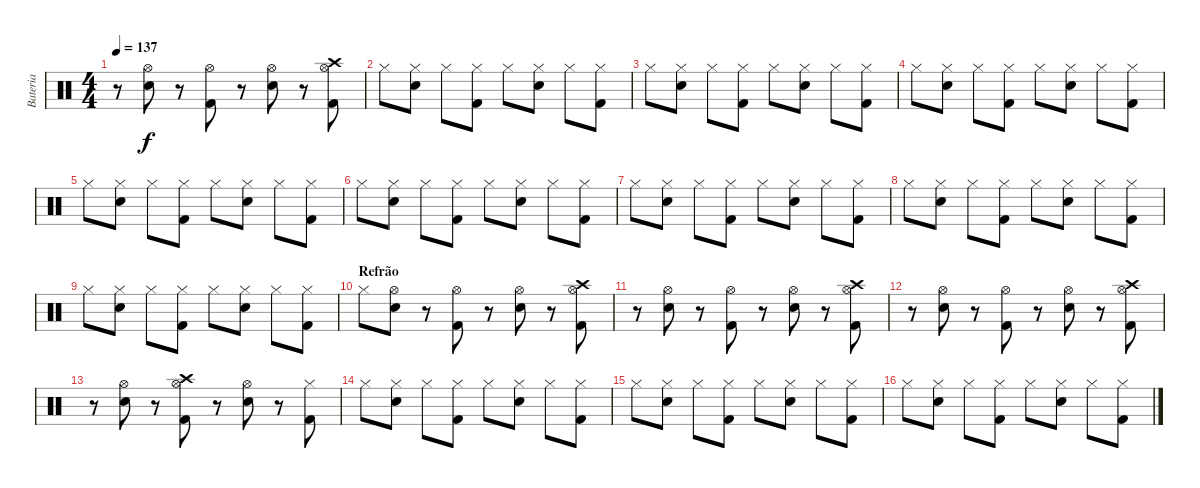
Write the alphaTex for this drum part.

\track ("Bateria" "Bateria") {instrument percussion}
\staff {score}
\articulation defaults
\ts (4 4)
\tempo 137
\clef neutral
\ks c
r.8{dy f} ("Snare (hit) 2" "Hi-Hat (open)").8 r.8 ("Kick (hit) 2" "Hi-Hat (open)").8 r.8 ("Snare (hit) 2" "Hi-Hat (open)").8 r.8 ("Kick (hit) 2" "Hi-Hat (open)" "Crash high (hit)").8 |
"Hi-Hat (closed)".8 ("Snare (hit) 2" "Hi-Hat (closed)").8 "Hi-Hat (closed)".8 ("Kick (hit) 2" "Hi-Hat (closed)").8 "Hi-Hat (closed)".8 ("Snare (hit) 2" "Hi-Hat (closed)").8 "Hi-Hat (closed)".8 ("Kick (hit) 2" "Hi-Hat (closed)").8 |
"Hi-Hat (closed)".8 ("Snare (hit) 2" "Hi-Hat (closed)").8 "Hi-Hat (closed)".8 ("Kick (hit) 2" "Hi-Hat (closed)").8 "Hi-Hat (closed)".8 ("Snare (hit) 2" "Hi-Hat (closed)").8 "Hi-Hat (closed)".8 ("Kick (hit) 2" "Hi-Hat (closed)").8 |
"Hi-Hat (closed)".8 ("Snare (hit) 2" "Hi-Hat (closed)").8 "Hi-Hat (closed)".8 ("Kick (hit) 2" "Hi-Hat (closed)").8 "Hi-Hat (closed)".8 ("Snare (hit) 2" "Hi-Hat (closed)").8 "Hi-Hat (closed)".8 ("Kick (hit) 2" "Hi-Hat (closed)").8 |
"Hi-Hat (closed)".8 ("Snare (hit) 2" "Hi-Hat (closed)").8 "Hi-Hat (closed)".8 ("Kick (hit) 2" "Hi-Hat (closed)").8 "Hi-Hat (closed)".8 ("Snare (hit) 2" "Hi-Hat (closed)").8 "Hi-Hat (closed)".8 ("Kick (hit) 2" "Hi-Hat (closed)").8 |
"Hi-Hat (closed)".8 ("Snare (hit) 2" "Hi-Hat (closed)").8 "Hi-Hat (closed)".8 ("Kick (hit) 2" "Hi-Hat (closed)").8 "Hi-Hat (closed)".8 ("Snare (hit) 2" "Hi-Hat (closed)").8 "Hi-Hat (closed)".8 ("Kick (hit) 2" "Hi-Hat (closed)").8 |
"Hi-Hat (closed)".8 ("Snare (hit) 2" "Hi-Hat (closed)").8 "Hi-Hat (closed)".8 ("Kick (hit) 2" "Hi-Hat (closed)").8 "Hi-Hat (closed)".8 ("Snare (hit) 2" "Hi-Hat (closed)").8 "Hi-Hat (closed)".8 ("Kick (hit) 2" "Hi-Hat (closed)").8 |
"Hi-Hat (closed)".8 ("Snare (hit) 2" "Hi-Hat (closed)").8 "Hi-Hat (closed)".8 ("Kick (hit) 2" "Hi-Hat (closed)").8 "Hi-Hat (closed)".8 ("Snare (hit) 2" "Hi-Hat (closed)").8 "Hi-Hat (closed)".8 ("Kick (hit) 2" "Hi-Hat (closed)").8 |
"Hi-Hat (closed)".8 ("Snare (hit) 2" "Hi-Hat (closed)").8 "Hi-Hat (closed)".8 ("Kick (hit) 2" "Hi-Hat (closed)").8 "Hi-Hat (closed)".8 ("Snare (hit) 2" "Hi-Hat (closed)").8 "Hi-Hat (closed)".8 ("Kick (hit) 2" "Hi-Hat (closed)").8 |
\section ("" "Refrão")
"Hi-Hat (closed)".8 ("Snare (hit) 2" "Hi-Hat (open)").8 r.8 ("Kick (hit) 2" "Hi-Hat (open)").8 r.8 ("Snare (hit) 2" "Hi-Hat (open)").8 r.8 ("Kick (hit) 2" "Hi-Hat (open)" "Crash high (hit)").8 |
r.8 ("Snare (hit) 2" "Hi-Hat (open)").8 r.8 ("Kick (hit) 2" "Hi-Hat (open)").8 r.8 ("Snare (hit) 2" "Hi-Hat (open)").8 r.8 ("Kick (hit) 2" "Hi-Hat (open)" "Crash high (hit)").8 |
r.8 ("Snare (hit) 2" "Hi-Hat (open)").8 r.8 ("Kick (hit) 2" "Hi-Hat (open)").8 r.8 ("Snare (hit) 2" "Hi-Hat (open)").8 r.8 ("Kick (hit) 2" "Hi-Hat (open)" "Crash high (hit)").8 |
r.8 ("Snare (hit) 2" "Hi-Hat (open)").8 r.8 ("Kick (hit) 2" "Hi-Hat (open)" "Crash high (hit)").8 r.8 ("Snare (hit) 2" "Hi-Hat (open)").8 r.8 ("Kick (hit) 2" "Hi-Hat (closed)").8 |
"Hi-Hat (closed)".8 ("Snare (hit) 2" "Hi-Hat (closed)").8 "Hi-Hat (closed)".8 ("Kick (hit) 2" "Hi-Hat (closed)").8 "Hi-Hat (closed)".8 ("Snare (hit) 2" "Hi-Hat (closed)").8 "Hi-Hat (closed)".8 ("Kick (hit) 2" "Hi-Hat (closed)").8 |
"Hi-Hat (closed)".8 ("Snare (hit) 2" "Hi-Hat (closed)").8 "Hi-Hat (closed)".8 ("Kick (hit) 2" "Hi-Hat (closed)").8 "Hi-Hat (closed)".8 ("Snare (hit) 2" "Hi-Hat (closed)").8 "Hi-Hat (closed)".8 ("Kick (hit) 2" "Hi-Hat (closed)").8 |
"Hi-Hat (closed)".8 ("Snare (hit) 2" "Hi-Hat (closed)").8 "Hi-Hat (closed)".8 ("Kick (hit) 2" "Hi-Hat (closed)").8 "Hi-Hat (closed)".8 ("Snare (hit) 2" "Hi-Hat (closed)").8 "Hi-Hat (closed)".8 ("Kick (hit) 2" "Hi-Hat (closed)").8
